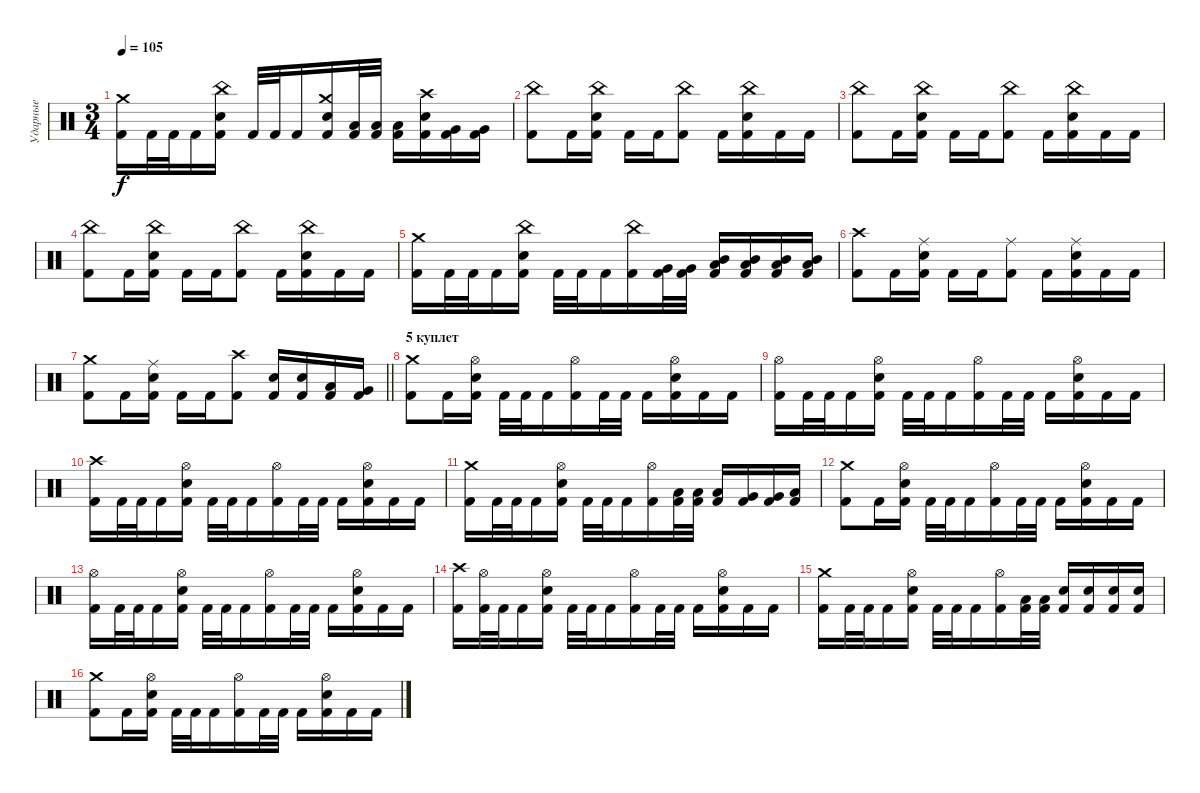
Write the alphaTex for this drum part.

\track ("Ударные" "Ударные") {instrument percussion}
\staff {score}
\articulation defaults
\ts (3 4)
\tempo 105
\clef neutral
\ks c
("Kick (hit) 2" "Crash medium (hit)").16{dy f} "Kick (hit) 2".32 "Kick (hit) 2".32 "Kick (hit) 2".16 ("Kick (hit) 2" "Snare (hit) 2" "China (hit)").16 "Kick (hit) 2".32 "Kick (hit) 2".32 "Kick (hit) 2".16 ("Kick (hit) 2" "Snare (hit) 2" "Crash medium (hit)").16 ("Kick (hit) 2" "Low Tom (hit)").32 ("Kick (hit) 2" "Low Tom (hit)").32 ("Kick (hit) 2" "Low Tom (hit)").16 ("Kick (hit) 2" "Snare (hit) 2" "Crash high (hit)").16 ("Kick (hit) 2" "Very Low Tom (hit)").16 ("Kick (hit) 2" "Very Low Tom (hit)").16 |
("Kick (hit) 2" "China (hit)").8 "Kick (hit) 2".16 ("Kick (hit) 2" "Snare (hit) 2" "China (hit)").16 "Kick (hit) 2".16 "Kick (hit) 2".16 ("Kick (hit) 2" "China (hit)").8 "Kick (hit) 2".16 ("Kick (hit) 2" "Snare (hit) 2" "China (hit)").16 "Kick (hit) 2".16 "Kick (hit) 2".16 |
("Kick (hit) 2" "China (hit)").8 "Kick (hit) 2".16 ("Kick (hit) 2" "Snare (hit) 2" "China (hit)").16 "Kick (hit) 2".16 "Kick (hit) 2".16 ("Kick (hit) 2" "China (hit)").8 "Kick (hit) 2".16 ("Kick (hit) 2" "Snare (hit) 2" "China (hit)").16 "Kick (hit) 2".16 "Kick (hit) 2".16 |
("Kick (hit) 2" "China (hit)").8 "Kick (hit) 2".16 ("Kick (hit) 2" "Snare (hit) 2" "China (hit)").16 "Kick (hit) 2".16 "Kick (hit) 2".16 ("Kick (hit) 2" "China (hit)").8 "Kick (hit) 2".16 ("Kick (hit) 2" "Snare (hit) 2" "China (hit)").16 "Kick (hit) 2".16 "Kick (hit) 2".16 |
("Kick (hit) 2" "Crash medium (hit)").16 "Kick (hit) 2".32 "Kick (hit) 2".32 "Kick (hit) 2".16 ("Kick (hit) 2" "Snare (hit) 2" "China (hit)").16 "Kick (hit) 2".32 "Kick (hit) 2".32 "Kick (hit) 2".16 ("Kick (hit) 2" "China (hit)").16 ("Kick (hit) 2" "Very Low Tom (hit)").32 ("Kick (hit) 2" "Very Low Tom (hit)").32 ("Kick (hit) 2" "Low Tom (hit)" "Mid Tom (hit)").16 ("Kick (hit) 2" "Low Tom (hit)" "Mid Tom (hit)").16 ("Kick (hit) 2" "Low Tom (hit)" "Mid Tom (hit)").16 ("Kick (hit) 2" "Low Tom (hit)" "Mid Tom (hit)").16 |
("Kick (hit) 2" "Crash high (hit)").8 "Kick (hit) 2".16 ("Kick (hit) 2" "Snare (hit) 2" "Ride (middle)").16 "Kick (hit) 2".16 "Kick (hit) 2".16 ("Kick (hit) 2" "Ride (middle)").8 "Kick (hit) 2".16 ("Kick (hit) 2" "Snare (hit) 2" "Ride (middle)").16 "Kick (hit) 2".16 "Kick (hit) 2".16 |
\barLineRight lightlight
("Kick (hit) 2" "Crash medium (hit)").8 "Kick (hit) 2".16 ("Kick (hit) 2" "Snare (hit) 2" "Ride (middle)").16 "Kick (hit) 2".16 "Kick (hit) 2".16 ("Kick (hit) 2" "Crash high (hit)").8 ("Kick (hit) 2" "Snare (hit) 2").16 ("Kick (hit) 2" "Snare (hit) 2").16 ("Kick (hit) 2" "Low Tom (hit)").16 ("Kick (hit) 2" "Very Low Tom (hit)").16 |
\section ("" "5 куплет")
("Kick (hit) 2" "Crash medium (hit)").8 "Kick (hit) 2".16 ("Kick (hit) 2" "Snare (hit) 2" "Hi-Hat (open)").16 "Kick (hit) 2".32 "Kick (hit) 2".32 "Kick (hit) 2".16 ("Kick (hit) 2" "Hi-Hat (open)").16 "Kick (hit) 2".32 "Kick (hit) 2".32 "Kick (hit) 2".16 ("Kick (hit) 2" "Snare (hit) 2" "Hi-Hat (open)").16 "Kick (hit) 2".16 "Kick (hit) 2".16 |
("Kick (hit) 2" "Hi-Hat (open)").16 "Kick (hit) 2".32 "Kick (hit) 2".32 "Kick (hit) 2".16 ("Kick (hit) 2" "Snare (hit) 2" "Hi-Hat (open)").16 "Kick (hit) 2".32 "Kick (hit) 2".32 "Kick (hit) 2".16 ("Kick (hit) 2" "Hi-Hat (open)").16 "Kick (hit) 2".32 "Kick (hit) 2".32 "Kick (hit) 2".16 ("Kick (hit) 2" "Snare (hit) 2" "Hi-Hat (open)").16 "Kick (hit) 2".16 "Kick (hit) 2".16 |
("Kick (hit) 2" "Crash high (hit)").16 "Kick (hit) 2".32 "Kick (hit) 2".32 "Kick (hit) 2".16 ("Kick (hit) 2" "Snare (hit) 2" "Hi-Hat (open)").16 "Kick (hit) 2".32 "Kick (hit) 2".32 "Kick (hit) 2".16 ("Kick (hit) 2" "Hi-Hat (open)").16 "Kick (hit) 2".32 "Kick (hit) 2".32 "Kick (hit) 2".16 ("Kick (hit) 2" "Snare (hit) 2" "Hi-Hat (open)").16 "Kick (hit) 2".16 "Kick (hit) 2".16 |
("Kick (hit) 2" "Crash medium (hit)").16 "Kick (hit) 2".32 "Kick (hit) 2".32 "Kick (hit) 2".16 ("Kick (hit) 2" "Snare (hit) 2" "Hi-Hat (open)").16 "Kick (hit) 2".32 "Kick (hit) 2".32 "Kick (hit) 2".16 ("Kick (hit) 2" "Hi-Hat (open)").16 ("Kick (hit) 2" "Low Tom (hit)").32 ("Kick (hit) 2" "Low Tom (hit)").32 ("Kick (hit) 2" "Low Tom (hit)").16 ("Kick (hit) 2" "Very Low Tom (hit)").16 ("Kick (hit) 2" "Very Low Tom (hit)").16 ("Kick (hit) 2" "Low Floor Tom (hit)").16 |
("Kick (hit) 2" "Crash medium (hit)").8 "Kick (hit) 2".16 ("Kick (hit) 2" "Snare (hit) 2" "Hi-Hat (open)").16 "Kick (hit) 2".32 "Kick (hit) 2".32 "Kick (hit) 2".16 ("Kick (hit) 2" "Hi-Hat (open)").16 "Kick (hit) 2".32 "Kick (hit) 2".32 "Kick (hit) 2".16 ("Kick (hit) 2" "Snare (hit) 2" "Hi-Hat (open)").16 "Kick (hit) 2".16 "Kick (hit) 2".16 |
("Kick (hit) 2" "Hi-Hat (open)").16 "Kick (hit) 2".32 "Kick (hit) 2".32 "Kick (hit) 2".16 ("Kick (hit) 2" "Snare (hit) 2" "Hi-Hat (open)").16 "Kick (hit) 2".32 "Kick (hit) 2".32 "Kick (hit) 2".16 ("Kick (hit) 2" "Hi-Hat (open)").16 "Kick (hit) 2".32 "Kick (hit) 2".32 "Kick (hit) 2".16 ("Kick (hit) 2" "Snare (hit) 2" "Hi-Hat (open)").16 "Kick (hit) 2".16 "Kick (hit) 2".16 |
("Kick (hit) 2" "Crash high (hit)").16 ("Kick (hit) 2" "Hi-Hat (open)").32 "Kick (hit) 2".32 "Kick (hit) 2".16 ("Kick (hit) 2" "Snare (hit) 2" "Hi-Hat (open)").16 "Kick (hit) 2".32 "Kick (hit) 2".32 "Kick (hit) 2".16 ("Kick (hit) 2" "Hi-Hat (open)").16 "Kick (hit) 2".32 "Kick (hit) 2".32 "Kick (hit) 2".16 ("Kick (hit) 2" "Snare (hit) 2" "Hi-Hat (open)").16 "Kick (hit) 2".16 "Kick (hit) 2".16 |
("Kick (hit) 2" "Crash medium (hit)").16 "Kick (hit) 2".32 "Kick (hit) 2".32 "Kick (hit) 2".16 ("Kick (hit) 2" "Snare (hit) 2" "Hi-Hat (open)").16 "Kick (hit) 2".32 "Kick (hit) 2".32 "Kick (hit) 2".16 ("Kick (hit) 2" "Hi-Hat (open)").16 ("Kick (hit) 2" "Low Tom (hit)").32 ("Kick (hit) 2" "Low Tom (hit)").32 ("Kick (hit) 2" "Snare (hit) 2").16 ("Kick (hit) 2" "Snare (hit) 2").16 ("Kick (hit) 2" "Snare (hit) 2").16 ("Kick (hit) 2" "Snare (hit) 2").16 |
("Kick (hit) 2" "Crash medium (hit)").8 "Kick (hit) 2".16 ("Kick (hit) 2" "Snare (hit) 2" "Hi-Hat (open)").16 "Kick (hit) 2".32 "Kick (hit) 2".32 "Kick (hit) 2".16 ("Kick (hit) 2" "Hi-Hat (open)").16 "Kick (hit) 2".32 "Kick (hit) 2".32 "Kick (hit) 2".16 ("Kick (hit) 2" "Snare (hit) 2" "Hi-Hat (open)").16 "Kick (hit) 2".16 "Kick (hit) 2".16
